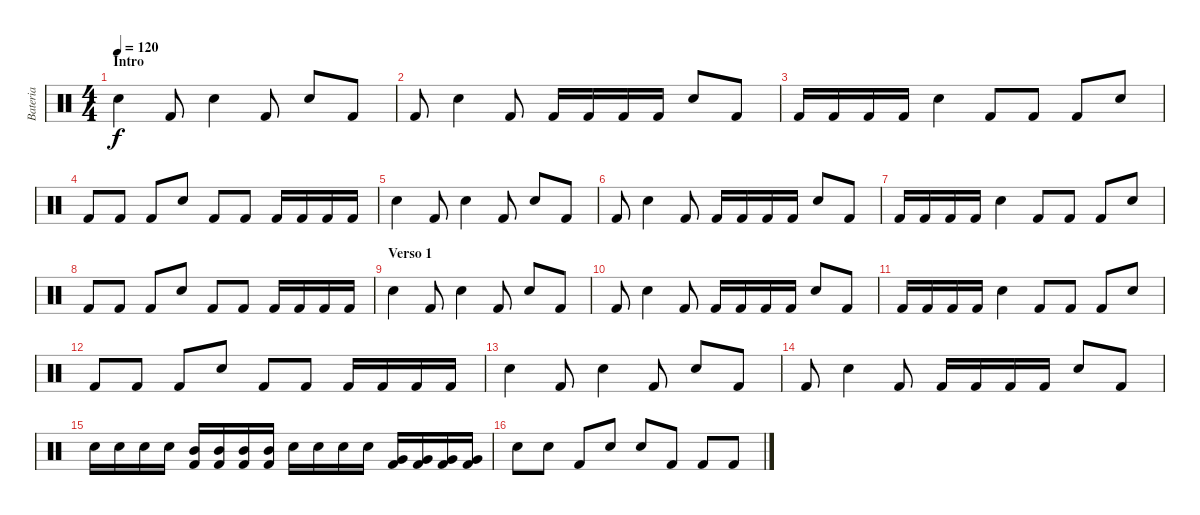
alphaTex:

\track ("Bateria" "Bateria") {instrument percussion}
\staff {score}
\articulation defaults
\ts (4 4)
\section ("" "Intro")
\tempo 120
\clef neutral
\ks c "Snare (hit) 2".4{dy f} "Kick (hit) 2".8 "Snare (hit) 2".4 "Kick (hit) 2".8 "Snare (hit) 2".8 "Kick (hit) 2".8
|
"Kick (hit) 2".8 "Snare (hit) 2".4 "Kick (hit) 2".8 "Kick (hit) 2".16 "Kick (hit) 2".16 "Kick (hit) 2".16 "Kick (hit) 2".16 "Snare (hit) 2".8 "Kick (hit) 2".8 |
"Kick (hit) 2".16 "Kick (hit) 2".16 "Kick (hit) 2".16 "Kick (hit) 2".16 "Snare (hit) 2".4 "Kick (hit) 2".8 "Kick (hit) 2".8 "Kick (hit) 2".8 "Snare (hit) 2".8 |
"Kick (hit) 2".8 "Kick (hit) 2".8 "Kick (hit) 2".8 "Snare (hit) 2".8 "Kick (hit) 2".8 "Kick (hit) 2".8 "Kick (hit) 2".16 "Kick (hit) 2".16 "Kick (hit) 2".16 "Kick (hit) 2".16 |
"Snare (hit) 2".4 "Kick (hit) 2".8 "Snare (hit) 2".4 "Kick (hit) 2".8 "Snare (hit) 2".8 "Kick (hit) 2".8 |
"Kick (hit) 2".8 "Snare (hit) 2".4 "Kick (hit) 2".8 "Kick (hit) 2".16 "Kick (hit) 2".16 "Kick (hit) 2".16 "Kick (hit) 2".16 "Snare (hit) 2".8 "Kick (hit) 2".8 |
"Kick (hit) 2".16 "Kick (hit) 2".16 "Kick (hit) 2".16 "Kick (hit) 2".16 "Snare (hit) 2".4 "Kick (hit) 2".8 "Kick (hit) 2".8 "Kick (hit) 2".8 "Snare (hit) 2".8 |
"Kick (hit) 2".8 "Kick (hit) 2".8 "Kick (hit) 2".8 "Snare (hit) 2".8 "Kick (hit) 2".8 "Kick (hit) 2".8 "Kick (hit) 2".16 "Kick (hit) 2".16 "Kick (hit) 2".16 "Kick (hit) 2".16 |
\section ("" "Verso 1")
"Snare (hit) 2".4 "Kick (hit) 2".8 "Snare (hit) 2".4 "Kick (hit) 2".8 "Snare (hit) 2".8 "Kick (hit) 2".8 |
"Kick (hit) 2".8 "Snare (hit) 2".4 "Kick (hit) 2".8 "Kick (hit) 2".16 "Kick (hit) 2".16 "Kick (hit) 2".16 "Kick (hit) 2".16 "Snare (hit) 2".8 "Kick (hit) 2".8 |
"Kick (hit) 2".16 "Kick (hit) 2".16 "Kick (hit) 2".16 "Kick (hit) 2".16 "Snare (hit) 2".4 "Kick (hit) 2".8 "Kick (hit) 2".8 "Kick (hit) 2".8 "Snare (hit) 2".8 |
"Kick (hit) 2".8 "Kick (hit) 2".8 "Kick (hit) 2".8 "Snare (hit) 2".8 "Kick (hit) 2".8 "Kick (hit) 2".8 "Kick (hit) 2".16 "Kick (hit) 2".16 "Kick (hit) 2".16 "Kick (hit) 2".16 |
"Snare (hit) 2".4 "Kick (hit) 2".8 "Snare (hit) 2".4 "Kick (hit) 2".8 "Snare (hit) 2".8 "Kick (hit) 2".8 |
"Kick (hit) 2".8 "Snare (hit) 2".4 "Kick (hit) 2".8 "Kick (hit) 2".16 "Kick (hit) 2".16 "Kick (hit) 2".16 "Kick (hit) 2".16 "Snare (hit) 2".8 "Kick (hit) 2".8 |
"Snare (hit) 2".16 "Snare (hit) 2".16 "Snare (hit) 2".16 "Snare (hit) 2".16 ("Kick (hit) 2" "Mid Tom (hit)").16 ("Kick (hit) 2" "Mid Tom (hit)").16 ("Kick (hit) 2" "Mid Tom (hit)").16 ("Kick (hit) 2" "Mid Tom (hit)").16 "Snare (hit) 2".16 "Snare (hit) 2".16 "Snare (hit) 2".16 "Snare (hit) 2".16 ("Kick (hit) 2" "Very Low Tom (hit)").16 ("Kick (hit) 2" "Very Low Tom (hit)").16 ("Kick (hit) 2" "Very Low Tom (hit)").16 ("Kick (hit) 2" "Very Low Tom (hit)").16 |
"Snare (hit) 2".8 "Snare (hit) 2".8 "Kick (hit) 2".8 "Snare (hit) 2".8 "Snare (hit) 2".8 "Kick (hit) 2".8 "Kick (hit) 2".8 "Kick (hit) 2".8
